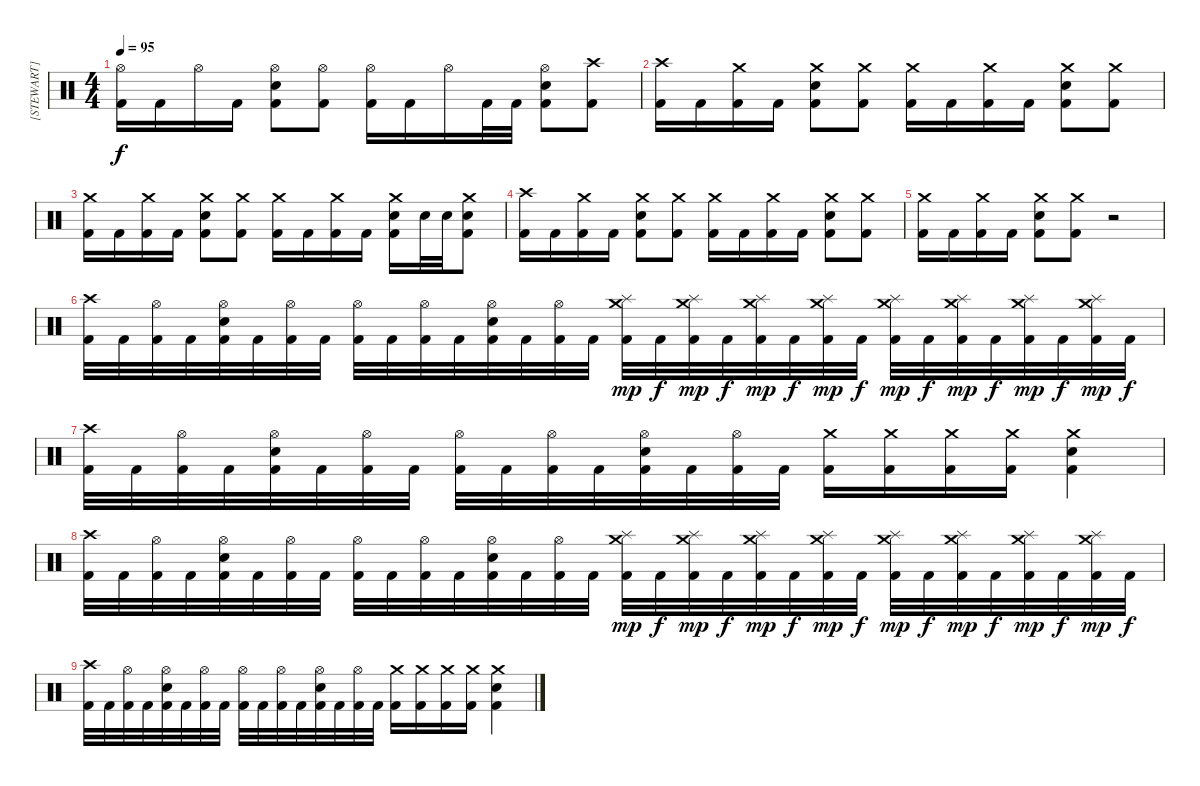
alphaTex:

\track ("[STEWART]" "[STEWART]") {instrument percussion}
\staff {score}
\articulation defaults
\ts (4 4)
\tempo 95
\clef neutral
\ks c
("Hi-Hat (open)" "Kick (hit) 2").16{dy f} "Kick (hit) 2".16 "Hi-Hat (open)".16 "Kick (hit) 2".16 ("Hi-Hat (open)" "Electric Snare (hit)" "Kick (hit) 2").8 ("Hi-Hat (open)" "Kick (hit) 2").8 ("Hi-Hat (open)" "Kick (hit) 2").16 "Kick (hit) 2".16 "Hi-Hat (open)".16 "Kick (hit) 2".32 "Kick (hit) 2".32 ("Hi-Hat (open)" "Electric Snare (hit)" "Kick (hit) 2").8 ("Crash high (hit)" "Kick (hit) 2").8 |
("Crash high (hit)" "Kick (hit) 2").16 "Kick (hit) 2".16 ("Crash medium (hit)" "Kick (hit) 2").16 "Kick (hit) 2".16 ("Crash medium (hit)" "Electric Snare (hit)" "Kick (hit) 2").8 ("Crash medium (hit)" "Kick (hit) 2").8 ("Crash medium (hit)" "Kick (hit) 2").16 "Kick (hit) 2".16 ("Crash medium (hit)" "Kick (hit) 2").16 "Kick (hit) 2".16 ("Crash medium (hit)" "Electric Snare (hit)" "Kick (hit) 2").8 ("Crash medium (hit)" "Kick (hit) 2").8 |
("Crash medium (hit)" "Kick (hit) 2").16 "Kick (hit) 2".16 ("Crash medium (hit)" "Kick (hit) 2").16 "Kick (hit) 2".16 ("Crash medium (hit)" "Electric Snare (hit)" "Kick (hit) 2").8 ("Crash medium (hit)" "Kick (hit) 2").8 ("Crash medium (hit)" "Kick (hit) 2").16 "Kick (hit) 2".16 ("Crash medium (hit)" "Kick (hit) 2").16 "Kick (hit) 2".16 ("Crash medium (hit)" "Electric Snare (hit)" "Kick (hit) 2").16 "Electric Snare (hit)".32 "Electric Snare (hit)".32 ("Crash medium (hit)" "Electric Snare (hit)" "Kick (hit) 2").8 |
("Crash high (hit)" "Kick (hit) 2").16 "Kick (hit) 2".16 ("Crash medium (hit)" "Kick (hit) 2").16 "Kick (hit) 2".16 ("Crash medium (hit)" "Electric Snare (hit)" "Kick (hit) 2").8 ("Crash medium (hit)" "Kick (hit) 2").8 ("Crash medium (hit)" "Kick (hit) 2").16 "Kick (hit) 2".16 ("Crash medium (hit)" "Kick (hit) 2").16 "Kick (hit) 2".16 ("Crash medium (hit)" "Electric Snare (hit)" "Kick (hit) 2").8 ("Crash medium (hit)" "Kick (hit) 2").8 |
("Crash medium (hit)" "Kick (hit) 2").16 "Kick (hit) 2".16 ("Crash medium (hit)" "Kick (hit) 2").16 "Kick (hit) 2".16 ("Crash medium (hit)" "Electric Snare (hit)" "Kick (hit) 2").8 ("Crash medium (hit)" "Kick (hit) 2").8 r.2 |
("Crash high (hit)" "Kick (hit) 2").32 "Kick (hit) 2".32 ("Hi-Hat (open)" "Kick (hit) 2").32 "Kick (hit) 2".32 ("Hi-Hat (open)" "Electric Snare (hit)" "Kick (hit) 2").32 "Kick (hit) 2".32 ("Hi-Hat (open)" "Kick (hit) 2").32 "Kick (hit) 2".32 ("Hi-Hat (open)" "Kick (hit) 2").32 "Kick (hit) 2".32 ("Hi-Hat (open)" "Kick (hit) 2").32 "Kick (hit) 2".32 ("Hi-Hat (open)" "Electric Snare (hit)" "Kick (hit) 2").32 "Kick (hit) 2".32 ("Hi-Hat (open)" "Kick (hit) 2").32 "Kick (hit) 2".32 ("Splash (hit)" "Crash medium (hit)" "Kick (hit) 2").32{dy mp} "Kick (hit) 2".32{dy f} ("Splash (hit)" "Crash medium (hit)" "Kick (hit) 2").32{dy mp} "Kick (hit) 2".32{dy f} ("Splash (hit)" "Crash medium (hit)" "Kick (hit) 2").32{dy mp} "Kick (hit) 2".32{dy f} ("Splash (hit)" "Crash medium (hit)" "Kick (hit) 2").32{dy mp} "Kick (hit) 2".32{dy f} ("Splash (hit)" "Crash medium (hit)" "Kick (hit) 2").32{dy mp} "Kick (hit) 2".32{dy f} ("Splash (hit)" "Crash medium (hit)" "Kick (hit) 2").32{dy mp} "Kick (hit) 2".32{dy f} ("Splash (hit)" "Crash medium (hit)" "Kick (hit) 2").32{dy mp} "Kick (hit) 2".32{dy f} ("Splash (hit)" "Crash medium (hit)" "Kick (hit) 2").32{dy mp} "Kick (hit) 2".32{dy f} |
("Crash high (hit)" "Kick (hit) 2").32 "Kick (hit) 2".32 ("Hi-Hat (open)" "Kick (hit) 2").32 "Kick (hit) 2".32 ("Hi-Hat (open)" "Electric Snare (hit)" "Kick (hit) 2").32 "Kick (hit) 2".32 ("Hi-Hat (open)" "Kick (hit) 2").32 "Kick (hit) 2".32 ("Hi-Hat (open)" "Kick (hit) 2").32 "Kick (hit) 2".32 ("Hi-Hat (open)" "Kick (hit) 2").32 "Kick (hit) 2".32 ("Hi-Hat (open)" "Electric Snare (hit)" "Kick (hit) 2").32 "Kick (hit) 2".32 ("Hi-Hat (open)" "Kick (hit) 2").32 "Kick (hit) 2".32 ("Crash medium (hit)" "Kick (hit) 2").16 ("Crash medium (hit)" "Kick (hit) 2").16 ("Crash medium (hit)" "Kick (hit) 2").16 ("Crash medium (hit)" "Kick (hit) 2").16 ("Crash medium (hit)" "Electric Snare (hit)" "Kick (hit) 2").4 |
("Crash high (hit)" "Kick (hit) 2").32 "Kick (hit) 2".32 ("Hi-Hat (open)" "Kick (hit) 2").32 "Kick (hit) 2".32 ("Hi-Hat (open)" "Electric Snare (hit)" "Kick (hit) 2").32 "Kick (hit) 2".32 ("Hi-Hat (open)" "Kick (hit) 2").32 "Kick (hit) 2".32 ("Hi-Hat (open)" "Kick (hit) 2").32 "Kick (hit) 2".32 ("Hi-Hat (open)" "Kick (hit) 2").32 "Kick (hit) 2".32 ("Hi-Hat (open)" "Electric Snare (hit)" "Kick (hit) 2").32 "Kick (hit) 2".32 ("Hi-Hat (open)" "Kick (hit) 2").32 "Kick (hit) 2".32 ("Splash (hit)" "Crash medium (hit)" "Kick (hit) 2").32{dy mp} "Kick (hit) 2".32{dy f} ("Splash (hit)" "Crash medium (hit)" "Kick (hit) 2").32{dy mp} "Kick (hit) 2".32{dy f} ("Splash (hit)" "Crash medium (hit)" "Kick (hit) 2").32{dy mp} "Kick (hit) 2".32{dy f} ("Splash (hit)" "Crash medium (hit)" "Kick (hit) 2").32{dy mp} "Kick (hit) 2".32{dy f} ("Splash (hit)" "Crash medium (hit)" "Kick (hit) 2").32{dy mp} "Kick (hit) 2".32{dy f} ("Splash (hit)" "Crash medium (hit)" "Kick (hit) 2").32{dy mp} "Kick (hit) 2".32{dy f} ("Splash (hit)" "Crash medium (hit)" "Kick (hit) 2").32{dy mp} "Kick (hit) 2".32{dy f} ("Splash (hit)" "Crash medium (hit)" "Kick (hit) 2").32{dy mp} "Kick (hit) 2".32{dy f} |
("Crash high (hit)" "Kick (hit) 2").32 "Kick (hit) 2".32 ("Hi-Hat (open)" "Kick (hit) 2").32 "Kick (hit) 2".32 ("Hi-Hat (open)" "Electric Snare (hit)" "Kick (hit) 2").32 "Kick (hit) 2".32 ("Hi-Hat (open)" "Kick (hit) 2").32 "Kick (hit) 2".32 ("Hi-Hat (open)" "Kick (hit) 2").32 "Kick (hit) 2".32 ("Hi-Hat (open)" "Kick (hit) 2").32 "Kick (hit) 2".32 ("Hi-Hat (open)" "Electric Snare (hit)" "Kick (hit) 2").32 "Kick (hit) 2".32 ("Hi-Hat (open)" "Kick (hit) 2").32 "Kick (hit) 2".32 ("Crash medium (hit)" "Kick (hit) 2").16 ("Crash medium (hit)" "Kick (hit) 2").16 ("Crash medium (hit)" "Kick (hit) 2").16 ("Crash medium (hit)" "Kick (hit) 2").16 ("Crash medium (hit)" "Electric Snare (hit)" "Kick (hit) 2").4
